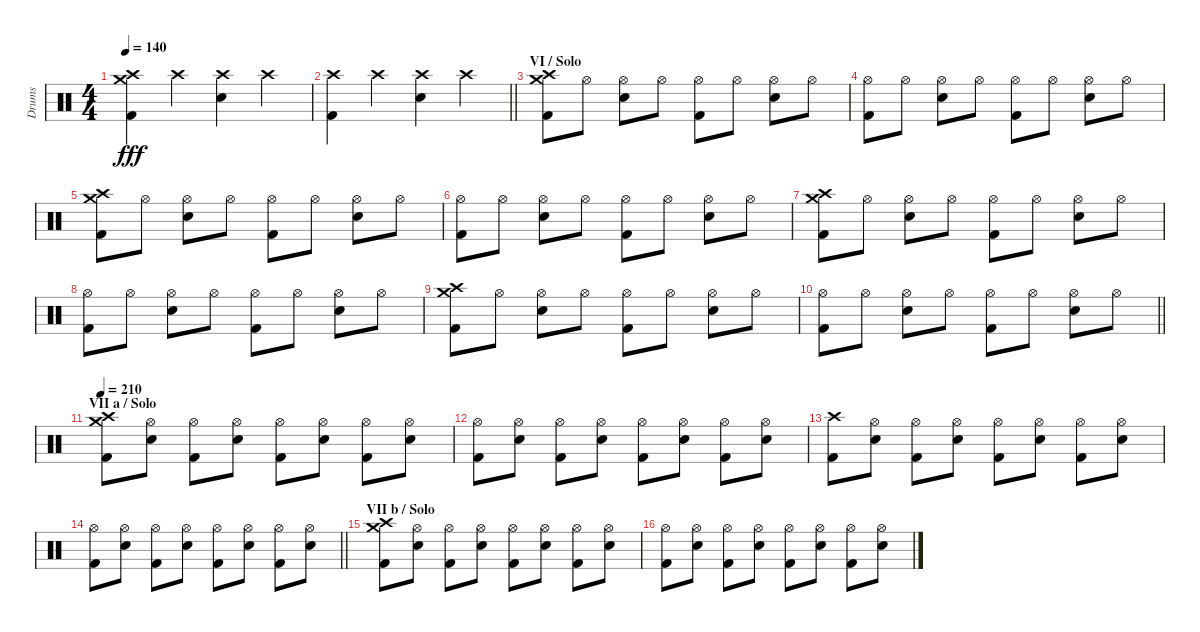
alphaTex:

\track ("Drums" "Drums") {instrument percussion}
\staff {score}
\articulation defaults
\ts (4 4)
\tempo 140
\clef neutral
\ks c
("Crash high (hit)" "Crash medium (hit)" "Kick (hit) 2").4{dy fff} "Crash high (hit)".4 ("Crash high (hit)" "Electric Snare (hit)").4 "Crash high (hit)".4 |
\barLineRight lightlight
("Crash high (hit)" "Kick (hit) 2").4 "Crash high (hit)".4 ("Crash high (hit)" "Electric Snare (hit)").4 "Crash high (hit)".4 |
\section ("" "VI / Solo")
("Crash high (hit)" "Crash medium (hit)" "Kick (hit) 2").8 "Hi-Hat (open)".8 ("Hi-Hat (open)" "Electric Snare (hit)").8 "Hi-Hat (open)".8 ("Hi-Hat (open)" "Kick (hit) 2").8 "Hi-Hat (open)".8 ("Hi-Hat (open)" "Electric Snare (hit)").8 "Hi-Hat (open)".8 |
("Hi-Hat (open)" "Kick (hit) 2").8 "Hi-Hat (open)".8 ("Hi-Hat (open)" "Electric Snare (hit)").8 "Hi-Hat (open)".8 ("Hi-Hat (open)" "Kick (hit) 2").8 "Hi-Hat (open)".8 ("Hi-Hat (open)" "Electric Snare (hit)").8 "Hi-Hat (open)".8 |
("Crash high (hit)" "Crash medium (hit)" "Kick (hit) 2").8 "Hi-Hat (open)".8 ("Hi-Hat (open)" "Electric Snare (hit)").8 "Hi-Hat (open)".8 ("Hi-Hat (open)" "Kick (hit) 2").8 "Hi-Hat (open)".8 ("Hi-Hat (open)" "Electric Snare (hit)").8 "Hi-Hat (open)".8 |
("Hi-Hat (open)" "Kick (hit) 2").8 "Hi-Hat (open)".8 ("Hi-Hat (open)" "Electric Snare (hit)").8 "Hi-Hat (open)".8 ("Hi-Hat (open)" "Kick (hit) 2").8 "Hi-Hat (open)".8 ("Hi-Hat (open)" "Electric Snare (hit)").8 "Hi-Hat (open)".8 |
("Crash high (hit)" "Crash medium (hit)" "Kick (hit) 2").8 "Hi-Hat (open)".8 ("Hi-Hat (open)" "Electric Snare (hit)").8 "Hi-Hat (open)".8 ("Hi-Hat (open)" "Kick (hit) 2").8 "Hi-Hat (open)".8 ("Hi-Hat (open)" "Electric Snare (hit)").8 "Hi-Hat (open)".8 |
("Hi-Hat (open)" "Kick (hit) 2").8 "Hi-Hat (open)".8 ("Hi-Hat (open)" "Electric Snare (hit)").8 "Hi-Hat (open)".8 ("Hi-Hat (open)" "Kick (hit) 2").8 "Hi-Hat (open)".8 ("Hi-Hat (open)" "Electric Snare (hit)").8 "Hi-Hat (open)".8 |
("Crash high (hit)" "Crash medium (hit)" "Kick (hit) 2").8 "Hi-Hat (open)".8 ("Hi-Hat (open)" "Electric Snare (hit)").8 "Hi-Hat (open)".8 ("Hi-Hat (open)" "Kick (hit) 2").8 "Hi-Hat (open)".8 ("Hi-Hat (open)" "Electric Snare (hit)").8 "Hi-Hat (open)".8 |
\barLineRight lightlight
("Hi-Hat (open)" "Kick (hit) 2").8 "Hi-Hat (open)".8 ("Hi-Hat (open)" "Electric Snare (hit)").8 "Hi-Hat (open)".8 ("Hi-Hat (open)" "Kick (hit) 2").8 "Hi-Hat (open)".8 ("Hi-Hat (open)" "Electric Snare (hit)").8 "Hi-Hat (open)".8 |
\section ("" "VII a / Solo")
\tempo 210
("Crash high (hit)" "Crash medium (hit)" "Kick (hit) 2").8 ("Hi-Hat (open)" "Snare (hit) 2").8 ("Hi-Hat (open)" "Kick (hit) 2").8 ("Hi-Hat (open)" "Snare (hit) 2").8 ("Hi-Hat (open)" "Kick (hit) 2").8 ("Hi-Hat (open)" "Snare (hit) 2").8 ("Hi-Hat (open)" "Kick (hit) 2").8 ("Hi-Hat (open)" "Snare (hit) 2").8 |
("Hi-Hat (open)" "Kick (hit) 2").8 ("Hi-Hat (open)" "Snare (hit) 2").8 ("Hi-Hat (open)" "Kick (hit) 2").8 ("Hi-Hat (open)" "Snare (hit) 2").8 ("Hi-Hat (open)" "Kick (hit) 2").8 ("Hi-Hat (open)" "Snare (hit) 2").8 ("Hi-Hat (open)" "Kick (hit) 2").8 ("Hi-Hat (open)" "Snare (hit) 2").8 |
("Crash high (hit)" "Kick (hit) 2").8 ("Hi-Hat (open)" "Snare (hit) 2").8 ("Hi-Hat (open)" "Kick (hit) 2").8 ("Hi-Hat (open)" "Snare (hit) 2").8 ("Hi-Hat (open)" "Kick (hit) 2").8 ("Hi-Hat (open)" "Snare (hit) 2").8 ("Hi-Hat (open)" "Kick (hit) 2").8 ("Hi-Hat (open)" "Snare (hit) 2").8 |
\barLineRight lightlight
("Hi-Hat (open)" "Kick (hit) 2").8 ("Hi-Hat (open)" "Snare (hit) 2").8 ("Hi-Hat (open)" "Kick (hit) 2").8 ("Hi-Hat (open)" "Snare (hit) 2").8 ("Hi-Hat (open)" "Kick (hit) 2").8 ("Hi-Hat (open)" "Snare (hit) 2").8 ("Hi-Hat (open)" "Kick (hit) 2").8 ("Hi-Hat (open)" "Snare (hit) 2").8 |
\section ("" "VII b / Solo")
("Crash high (hit)" "Crash medium (hit)" "Kick (hit) 2").8 ("Hi-Hat (open)" "Snare (hit) 2").8 ("Hi-Hat (open)" "Kick (hit) 2").8 ("Hi-Hat (open)" "Snare (hit) 2").8 ("Hi-Hat (open)" "Kick (hit) 2").8 ("Hi-Hat (open)" "Snare (hit) 2").8 ("Hi-Hat (open)" "Kick (hit) 2").8 ("Hi-Hat (open)" "Snare (hit) 2").8 |
("Hi-Hat (open)" "Kick (hit) 2").8 ("Hi-Hat (open)" "Snare (hit) 2").8 ("Hi-Hat (open)" "Kick (hit) 2").8 ("Hi-Hat (open)" "Snare (hit) 2").8 ("Hi-Hat (open)" "Kick (hit) 2").8 ("Hi-Hat (open)" "Snare (hit) 2").8 ("Hi-Hat (open)" "Kick (hit) 2").8 ("Hi-Hat (open)" "Snare (hit) 2").8
